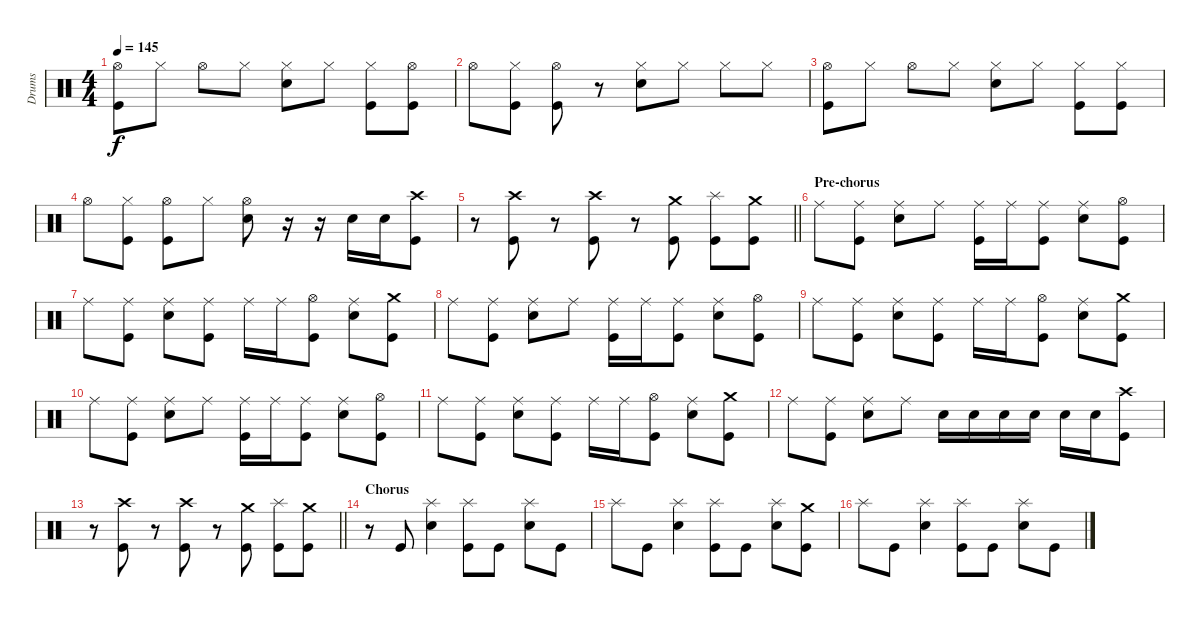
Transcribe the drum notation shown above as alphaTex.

\track ("Drums" "Drums") {instrument percussion}
\staff {score}
\articulation defaults
\ts (4 4)
\tempo 145
\clef neutral
\ks c
("Hi-Hat (open)" "Kick (hit)").8{dy f} "Hi-Hat (closed)".8 "Hi-Hat (open)".8 "Hi-Hat (closed)".8 ("Hi-Hat (closed)" "Electric Snare (hit)").8 "Hi-Hat (closed)".8 ("Hi-Hat (closed)" "Kick (hit)").8 ("Hi-Hat (open)" "Kick (hit)").8 |
"Hi-Hat (open)".8 ("Hi-Hat (closed)" "Kick (hit)").8 ("Hi-Hat (open)" "Kick (hit)").8 r.8 ("Hi-Hat (closed)" "Electric Snare (hit)").8 "Hi-Hat (closed)".8 "Hi-Hat (closed)".8 "Hi-Hat (closed)".8 |
("Hi-Hat (open)" "Kick (hit)").8 "Hi-Hat (closed)".8 "Hi-Hat (open)".8 "Hi-Hat (closed)".8 ("Hi-Hat (closed)" "Electric Snare (hit)").8 "Hi-Hat (closed)".8 ("Hi-Hat (closed)" "Kick (hit)").8 ("Hi-Hat (closed)" "Kick (hit)").8 |
"Hi-Hat (open)".8 ("Hi-Hat (closed)" "Kick (hit)").8 ("Hi-Hat (open)" "Kick (hit)").8 "Hi-Hat (closed)".8 ("Hi-Hat (open)" "Electric Snare (hit)").8 r.16 r.16 "Electric Snare (hit)".16 "Electric Snare (hit)".16 ("Crash high (hit)" "Kick (hit)").8 |
\barLineRight lightlight
r.8 ("Crash high (hit)" "Kick (hit)").8 r.8 ("Crash high (hit)" "Kick (hit)").8 r.8 ("Crash medium (hit)" "Kick (hit)").8 ("Splash (hit)" "Kick (hit)").8 ("Crash medium (hit)" "Kick (hit)").8 |
\section ("" "Pre-chorus")
"Ride (middle)".8 ("Ride (middle)" "Kick (hit)").8 ("Ride (middle)" "Electric Snare (hit)").8 "Ride (middle)".8 ("Ride (middle)" "Kick (hit)").16 "Ride (middle)".16 ("Ride (middle)" "Kick (hit)").8 ("Ride (middle)" "Electric Snare (hit)").8 ("Hi-Hat (open)" "Kick (hit)").8 |
"Ride (middle)".8 ("Ride (middle)" "Kick (hit)").8 ("Ride (middle)" "Electric Snare (hit)").8 ("Ride (middle)" "Kick (hit)").8 "Ride (middle)".16 "Ride (middle)".16 ("Hi-Hat (open)" "Kick (hit)").8 ("Ride (middle)" "Electric Snare (hit)").8 ("Crash medium (hit)" "Kick (hit)").8 |
"Ride (middle)".8 ("Ride (middle)" "Kick (hit)").8 ("Ride (middle)" "Electric Snare (hit)").8 "Ride (middle)".8 ("Ride (middle)" "Kick (hit)").16 "Ride (middle)".16 ("Ride (middle)" "Kick (hit)").8 ("Ride (middle)" "Electric Snare (hit)").8 ("Hi-Hat (open)" "Kick (hit)").8 |
"Ride (middle)".8 ("Ride (middle)" "Kick (hit)").8 ("Ride (middle)" "Electric Snare (hit)").8 ("Ride (middle)" "Kick (hit)").8 "Ride (middle)".16 "Ride (middle)".16 ("Hi-Hat (open)" "Kick (hit)").8 ("Ride (middle)" "Electric Snare (hit)").8 ("Crash medium (hit)" "Kick (hit)").8 |
"Ride (middle)".8 ("Ride (middle)" "Kick (hit)").8 ("Ride (middle)" "Electric Snare (hit)").8 "Ride (middle)".8 ("Ride (middle)" "Kick (hit)").16 "Ride (middle)".16 ("Ride (middle)" "Kick (hit)").8 ("Ride (middle)" "Electric Snare (hit)").8 ("Hi-Hat (open)" "Kick (hit)").8 |
"Ride (middle)".8 ("Ride (middle)" "Kick (hit)").8 ("Ride (middle)" "Electric Snare (hit)").8 ("Ride (middle)" "Kick (hit)").8 "Ride (middle)".16 "Ride (middle)".16 ("Hi-Hat (open)" "Kick (hit)").8 ("Ride (middle)" "Electric Snare (hit)").8 ("Crash medium (hit)" "Kick (hit)").8 |
"Ride (middle)".8 ("Ride (middle)" "Kick (hit)").8 ("Ride (middle)" "Electric Snare (hit)").8 "Ride (middle)".8 "Electric Snare (hit)".16 "Electric Snare (hit)".16 "Electric Snare (hit)".16 "Electric Snare (hit)".16 "Electric Snare (hit)".16 "Electric Snare (hit)".16 ("Crash high (hit)" "Kick (hit)").8 |
\barLineRight lightlight
r.8 ("Crash high (hit)" "Kick (hit)").8 r.8 ("Crash high (hit)" "Kick (hit)").8 r.8 ("Crash medium (hit)" "Kick (hit)").8 ("Splash (hit)" "Kick (hit)").8 ("Crash medium (hit)" "Kick (hit)").8 |
\section ("" "Chorus")
r.8 "Kick (hit)".8 ("Splash (hit)" "Electric Snare (hit)").4 ("Splash (hit)" "Kick (hit)").8 "Kick (hit)".8 ("Splash (hit)" "Electric Snare (hit)").8 "Kick (hit)".8 |
"Splash (hit)".8 "Kick (hit)".8 ("Splash (hit)" "Electric Snare (hit)").4 ("Splash (hit)" "Kick (hit)").8 "Kick (hit)".8 ("Splash (hit)" "Electric Snare (hit)").8 ("Crash medium (hit)" "Kick (hit)").8 |
"Splash (hit)".8 "Kick (hit)".8 ("Splash (hit)" "Electric Snare (hit)").4 ("Splash (hit)" "Kick (hit)").8 "Kick (hit)".8 ("Splash (hit)" "Electric Snare (hit)").8 "Kick (hit)".8
